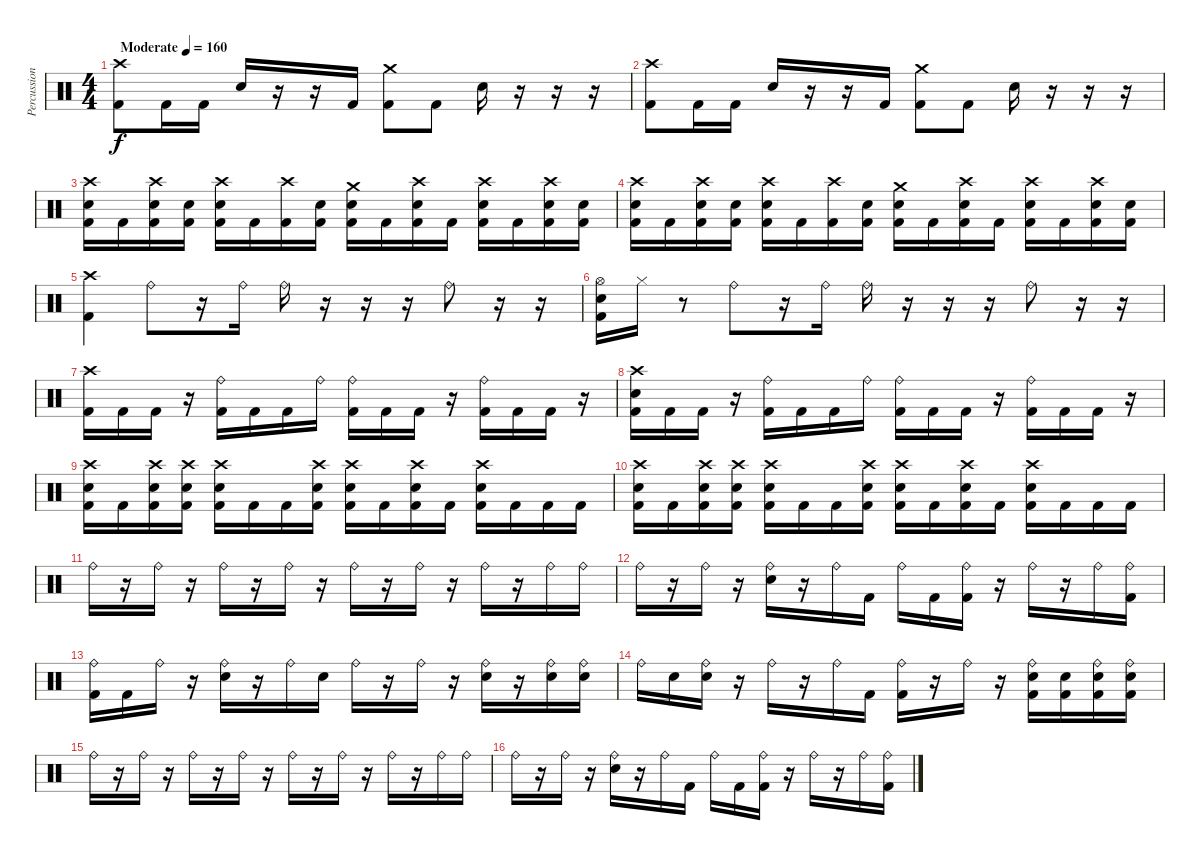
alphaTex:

\track ("Percussion" "Percussion") {instrument percussion}
\staff {score}
\articulation defaults
\ts (4 4)
\tempo (160 "Moderate")
\clef neutral
\ks c
("Crash high (hit)" "Kick (hit) 2").8{dy f} "Kick (hit) 2".16 "Kick (hit) 2".16 "Snare (hit) 2".16 r.16 r.16 "Kick (hit) 2".16 ("Crash medium (hit)" "Kick (hit) 2").8 "Kick (hit) 2".8 "Snare (hit) 2".16 r.16 r.16 r.16 |
("Crash high (hit)" "Kick (hit) 2").8 "Kick (hit) 2".16 "Kick (hit) 2".16 "Snare (hit) 2".16 r.16 r.16 "Kick (hit) 2".16 ("Crash medium (hit)" "Kick (hit) 2").8 "Kick (hit) 2".8 "Snare (hit) 2".16 r.16 r.16 r.16 |
("Crash high (hit)" "Snare (hit) 2" "Kick (hit) 2").16 "Kick (hit) 2".16 ("Crash high (hit)" "Snare (hit) 2" "Kick (hit) 2").16 ("Snare (hit) 2" "Kick (hit) 2").16 ("Crash high (hit)" "Snare (hit) 2" "Kick (hit) 2").16 "Kick (hit) 2".16 ("Crash high (hit)" "Kick (hit) 2").16 ("Snare (hit) 2" "Kick (hit) 2").16 ("Crash medium (hit)" "Snare (hit) 2" "Kick (hit) 2").16 "Kick (hit) 2".16 ("Crash high (hit)" "Snare (hit) 2" "Kick (hit) 2").16 "Kick (hit) 2".16 ("Crash high (hit)" "Snare (hit) 2" "Kick (hit) 2").16 "Kick (hit) 2".16 ("Crash high (hit)" "Snare (hit) 2" "Kick (hit) 2").16 ("Snare (hit) 2" "Kick (hit) 2").16 |
("Crash high (hit)" "Snare (hit) 2" "Kick (hit) 2").16 "Kick (hit) 2".16 ("Crash high (hit)" "Snare (hit) 2" "Kick (hit) 2").16 ("Snare (hit) 2" "Kick (hit) 2").16 ("Crash high (hit)" "Snare (hit) 2" "Kick (hit) 2").16 "Kick (hit) 2".16 ("Crash high (hit)" "Kick (hit) 2").16 ("Snare (hit) 2" "Kick (hit) 2").16 ("Crash medium (hit)" "Snare (hit) 2" "Kick (hit) 2").16 "Kick (hit) 2".16 ("Crash high (hit)" "Snare (hit) 2" "Kick (hit) 2").16 "Kick (hit) 2".16 ("Crash high (hit)" "Snare (hit) 2" "Kick (hit) 2").16 "Kick (hit) 2".16 ("Crash high (hit)" "Snare (hit) 2" "Kick (hit) 2").16 ("Snare (hit) 2" "Kick (hit) 2").16 |
("Crash high (hit)" "Kick (hit) 2").4 "Ride (bell)".8 r.16 "Ride (bell)".16 "Ride (bell)".16 r.16 r.16 r.16 "Ride (bell)".8 r.16 r.16 |
("Hi-Hat (open)" "Snare (hit) 2" "Kick (hit) 2").16 "Hi-Hat (closed)".16 r.8 "Ride (bell)".8 r.16 "Ride (bell)".16 "Ride (bell)".16 r.16 r.16 r.16 "Ride (bell)".8 r.16 r.16 |
("Crash high (hit)" "Kick (hit) 2").16 "Kick (hit) 2".16 "Kick (hit) 2".16 r.16 ("Ride (bell)" "Kick (hit) 2").16 "Kick (hit) 2".16 "Kick (hit) 2".16 "Ride (bell)".16 ("Ride (bell)" "Kick (hit) 2").16 "Kick (hit) 2".16 "Kick (hit) 2".16 r.16 ("Ride (bell)" "Kick (hit) 2").16 "Kick (hit) 2".16 "Kick (hit) 2".16 r.16 |
("Crash high (hit)" "Snare (hit) 2" "Kick (hit) 2").16 "Kick (hit) 2".16 "Kick (hit) 2".16 r.16 ("Ride (bell)" "Kick (hit) 2").16 "Kick (hit) 2".16 "Kick (hit) 2".16 "Ride (bell)".16 ("Ride (bell)" "Kick (hit) 2").16 "Kick (hit) 2".16 "Kick (hit) 2".16 r.16 ("Ride (bell)" "Kick (hit) 2").16 "Kick (hit) 2".16 "Kick (hit) 2".16 r.16 |
("Crash high (hit)" "Snare (hit) 2" "Kick (hit) 2").16 "Kick (hit) 2".16 ("Crash high (hit)" "Snare (hit) 2" "Kick (hit) 2").16 ("Crash high (hit)" "Snare (hit) 2" "Kick (hit) 2").16 ("Crash high (hit)" "Snare (hit) 2" "Kick (hit) 2").16 "Kick (hit) 2".16 "Kick (hit) 2".16 ("Crash high (hit)" "Snare (hit) 2" "Kick (hit) 2").16 ("Crash high (hit)" "Snare (hit) 2" "Kick (hit) 2").16 "Kick (hit) 2".16 ("Crash high (hit)" "Snare (hit) 2" "Kick (hit) 2").16 "Kick (hit) 2".16 ("Crash high (hit)" "Snare (hit) 2" "Kick (hit) 2").16 "Kick (hit) 2".16 "Kick (hit) 2".16 "Kick (hit) 2".16 |
("Crash high (hit)" "Snare (hit) 2" "Kick (hit) 2").16 "Kick (hit) 2".16 ("Crash high (hit)" "Snare (hit) 2" "Kick (hit) 2").16 ("Crash high (hit)" "Snare (hit) 2" "Kick (hit) 2").16 ("Crash high (hit)" "Snare (hit) 2" "Kick (hit) 2").16 "Kick (hit) 2".16 "Kick (hit) 2".16 ("Crash high (hit)" "Snare (hit) 2" "Kick (hit) 2").16 ("Crash high (hit)" "Snare (hit) 2" "Kick (hit) 2").16 "Kick (hit) 2".16 ("Crash high (hit)" "Snare (hit) 2" "Kick (hit) 2").16 "Kick (hit) 2".16 ("Crash high (hit)" "Snare (hit) 2" "Kick (hit) 2").16 "Kick (hit) 2".16 "Kick (hit) 2".16 "Kick (hit) 2".16 |
"Ride (bell)".16 r.16 "Ride (bell)".16 r.16 "Ride (bell)".16 r.16 "Ride (bell)".16 r.16 "Ride (bell)".16 r.16 "Ride (bell)".16 r.16 "Ride (bell)".16 r.16 "Ride (bell)".16 "Ride (bell)".16 |
"Ride (bell)".16 r.16 "Ride (bell)".16 r.16 ("Ride (bell)" "Snare (hit) 2").16 r.16 "Ride (bell)".16 "Kick (hit) 2".16 "Ride (bell)".16 "Kick (hit) 2".16 ("Ride (bell)" "Kick (hit) 2").16 r.16 "Ride (bell)".16 r.16 "Ride (bell)".16 ("Ride (bell)" "Kick (hit) 2").16 |
("Ride (bell)" "Kick (hit) 2").16 "Kick (hit) 2".16 "Ride (bell)".16 r.16 ("Ride (bell)" "Snare (hit) 2").16 r.16 "Ride (bell)".16 "Snare (hit) 2".16 "Ride (bell)".16 r.16 "Ride (bell)".16 r.16 ("Ride (bell)" "Snare (hit) 2").16 r.16 ("Ride (bell)" "Snare (hit) 2").16 ("Ride (bell)" "Snare (hit) 2").16 |
"Ride (bell)".16 "Snare (hit) 2".16 ("Ride (bell)" "Snare (hit) 2").16 r.16 "Ride (bell)".16 r.16 "Ride (bell)".16 "Kick (hit) 2".16 ("Ride (bell)" "Kick (hit) 2").16 r.16 "Ride (bell)".16 r.16 ("Ride (bell)" "Snare (hit) 2" "Kick (hit) 2").16 ("Snare (hit) 2" "Kick (hit) 2").16 ("Ride (bell)" "Snare (hit) 2" "Kick (hit) 2").16 ("Ride (bell)" "Snare (hit) 2" "Kick (hit) 2").16 |
"Ride (bell)".16 r.16 "Ride (bell)".16 r.16 "Ride (bell)".16 r.16 "Ride (bell)".16 r.16 "Ride (bell)".16 r.16 "Ride (bell)".16 r.16 "Ride (bell)".16 r.16 "Ride (bell)".16 "Ride (bell)".16 |
"Ride (bell)".16 r.16 "Ride (bell)".16 r.16 ("Ride (bell)" "Snare (hit) 2").16 r.16 "Ride (bell)".16 "Kick (hit) 2".16 "Ride (bell)".16 "Kick (hit) 2".16 ("Ride (bell)" "Kick (hit) 2").16 r.16 "Ride (bell)".16 r.16 "Ride (bell)".16 ("Ride (bell)" "Kick (hit) 2").16
